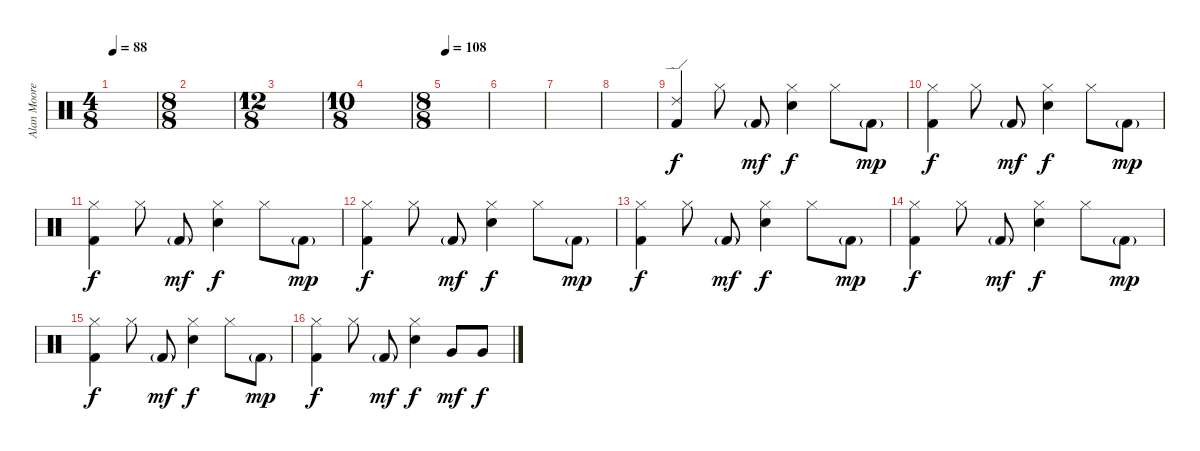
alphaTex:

\track ("Alan Moore" "Alan Moore") {instrument percussion}
\staff {score}
\articulation defaults
\ts (4 8)
\tempo 88
\clef neutral
\ks c
|
\ts (8 8)
|
\ts (12 8)
|
\ts (10 8)
|
\ts (8 8)
\tempo 108
|
|
|
|
("Ride (edge) 2" "Kick (hit) 2").4 "Hi-Hat (closed)".8 "Kick (hit) 2"{g}.8{dy mf} ("Hi-Hat (closed)" "Snare (hit) 2").4{dy f} "Hi-Hat (closed)".8 "Kick (hit) 2"{g}.8{dy mp} |
("Hi-Hat (closed)" "Kick (hit) 2").4{dy f} "Hi-Hat (closed)".8 "Kick (hit) 2"{g}.8{dy mf} ("Hi-Hat (closed)" "Snare (hit) 2").4{dy f} "Hi-Hat (closed)".8 "Kick (hit) 2"{g}.8{dy mp} |
("Hi-Hat (closed)" "Kick (hit) 2").4{dy f} "Hi-Hat (closed)".8 "Kick (hit) 2"{g}.8{dy mf} ("Hi-Hat (closed)" "Snare (hit) 2").4{dy f} "Hi-Hat (closed)".8 "Kick (hit) 2"{g}.8{dy mp} |
("Hi-Hat (closed)" "Kick (hit) 2").4{dy f} "Hi-Hat (closed)".8 "Kick (hit) 2"{g}.8{dy mf} ("Hi-Hat (closed)" "Snare (hit) 2").4{dy f} "Hi-Hat (closed)".8 "Kick (hit) 2"{g}.8{dy mp} |
("Hi-Hat (closed)" "Kick (hit) 2").4{dy f} "Hi-Hat (closed)".8 "Kick (hit) 2"{g}.8{dy mf} ("Hi-Hat (closed)" "Snare (hit) 2").4{dy f} "Hi-Hat (closed)".8 "Kick (hit) 2"{g}.8{dy mp} |
("Hi-Hat (closed)" "Kick (hit) 2").4{dy f} "Hi-Hat (closed)".8 "Kick (hit) 2"{g}.8{dy mf} ("Hi-Hat (closed)" "Snare (hit) 2").4{dy f} "Hi-Hat (closed)".8 "Kick (hit) 2"{g}.8{dy mp} |
("Hi-Hat (closed)" "Kick (hit) 2").4{dy f} "Hi-Hat (closed)".8 "Kick (hit) 2"{g}.8{dy mf} ("Hi-Hat (closed)" "Snare (hit) 2").4{dy f} "Hi-Hat (closed)".8 "Kick (hit) 2"{g}.8{dy mp} |
("Hi-Hat (closed)" "Kick (hit) 2").4{dy f} "Hi-Hat (closed)".8 "Kick (hit) 2"{g}.8{dy mf} ("Hi-Hat (closed)" "Snare (hit) 2").4{dy f} "Very Low Tom (hit)".8{dy mf} "Very Low Tom (hit)".8{dy f}
